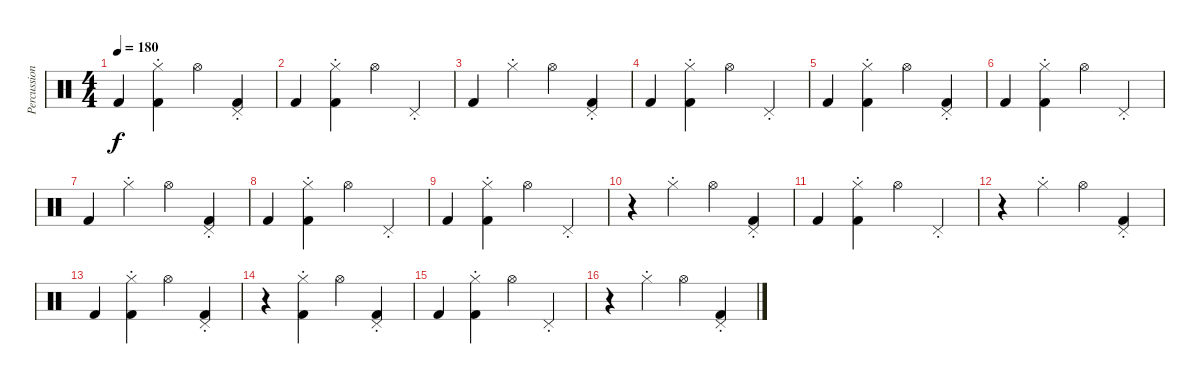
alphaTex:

\track ("Percussion" "Percussion") {instrument percussion}
\staff {score}
\articulation defaults
\ts (4 4)
\tempo 180
\clef neutral
\ks c "Kick (hit) 2".4{dy f}
("Hi-Hat (closed)"{st} "Kick (hit) 2").4 "Hi-Hat (open)".4 ("Pedal Hi-Hat (hit)"{st} "Kick (hit) 2").4 |
"Kick (hit) 2".4 ("Hi-Hat (closed)"{st} "Kick (hit) 2").4 "Hi-Hat (open)".4 "Pedal Hi-Hat (hit)"{st}.4 |
"Kick (hit) 2".4 "Hi-Hat (closed)"{st}.4 "Hi-Hat (open)".4 ("Pedal Hi-Hat (hit)"{st} "Kick (hit) 2").4 |
"Kick (hit) 2".4 ("Hi-Hat (closed)"{st} "Kick (hit) 2").4 "Hi-Hat (open)".4 "Pedal Hi-Hat (hit)"{st}.4 |
"Kick (hit) 2".4 ("Hi-Hat (closed)"{st} "Kick (hit) 2").4 "Hi-Hat (open)".4 ("Pedal Hi-Hat (hit)"{st} "Kick (hit) 2").4 |
"Kick (hit) 2".4 ("Hi-Hat (closed)"{st} "Kick (hit) 2").4 "Hi-Hat (open)".4 "Pedal Hi-Hat (hit)"{st}.4 |
"Kick (hit) 2".4 "Hi-Hat (closed)"{st}.4 "Hi-Hat (open)".4 ("Pedal Hi-Hat (hit)"{st} "Kick (hit) 2").4 |
"Kick (hit) 2".4 ("Hi-Hat (closed)"{st} "Kick (hit) 2").4 "Hi-Hat (open)".4 "Pedal Hi-Hat (hit)"{st}.4 |
"Kick (hit) 2".4 ("Hi-Hat (closed)"{st} "Kick (hit) 2").4 "Hi-Hat (open)".4 "Pedal Hi-Hat (hit)"{st}.4 |
r.4 "Hi-Hat (closed)"{st}.4 "Hi-Hat (open)".4 ("Pedal Hi-Hat (hit)"{st} "Kick (hit) 2").4 |
"Kick (hit) 2".4 ("Hi-Hat (closed)"{st} "Kick (hit) 2").4 "Hi-Hat (open)".4 "Pedal Hi-Hat (hit)"{st}.4 |
r.4 "Hi-Hat (closed)"{st}.4 "Hi-Hat (open)".4 ("Pedal Hi-Hat (hit)"{st} "Kick (hit) 2").4 |
"Kick (hit) 2".4 ("Hi-Hat (closed)"{st} "Kick (hit) 2").4 "Hi-Hat (open)".4 ("Pedal Hi-Hat (hit)"{st} "Kick (hit) 2").4 |
r.4 ("Hi-Hat (closed)"{st} "Kick (hit) 2").4 "Hi-Hat (open)".4 ("Pedal Hi-Hat (hit)"{st} "Kick (hit) 2").4 |
"Kick (hit) 2".4 ("Hi-Hat (closed)"{st} "Kick (hit) 2").4 "Hi-Hat (open)".4 "Pedal Hi-Hat (hit)"{st}.4 |
r.4 "Hi-Hat (closed)"{st}.4 "Hi-Hat (open)".4 ("Pedal Hi-Hat (hit)"{st} "Kick (hit) 2").4
